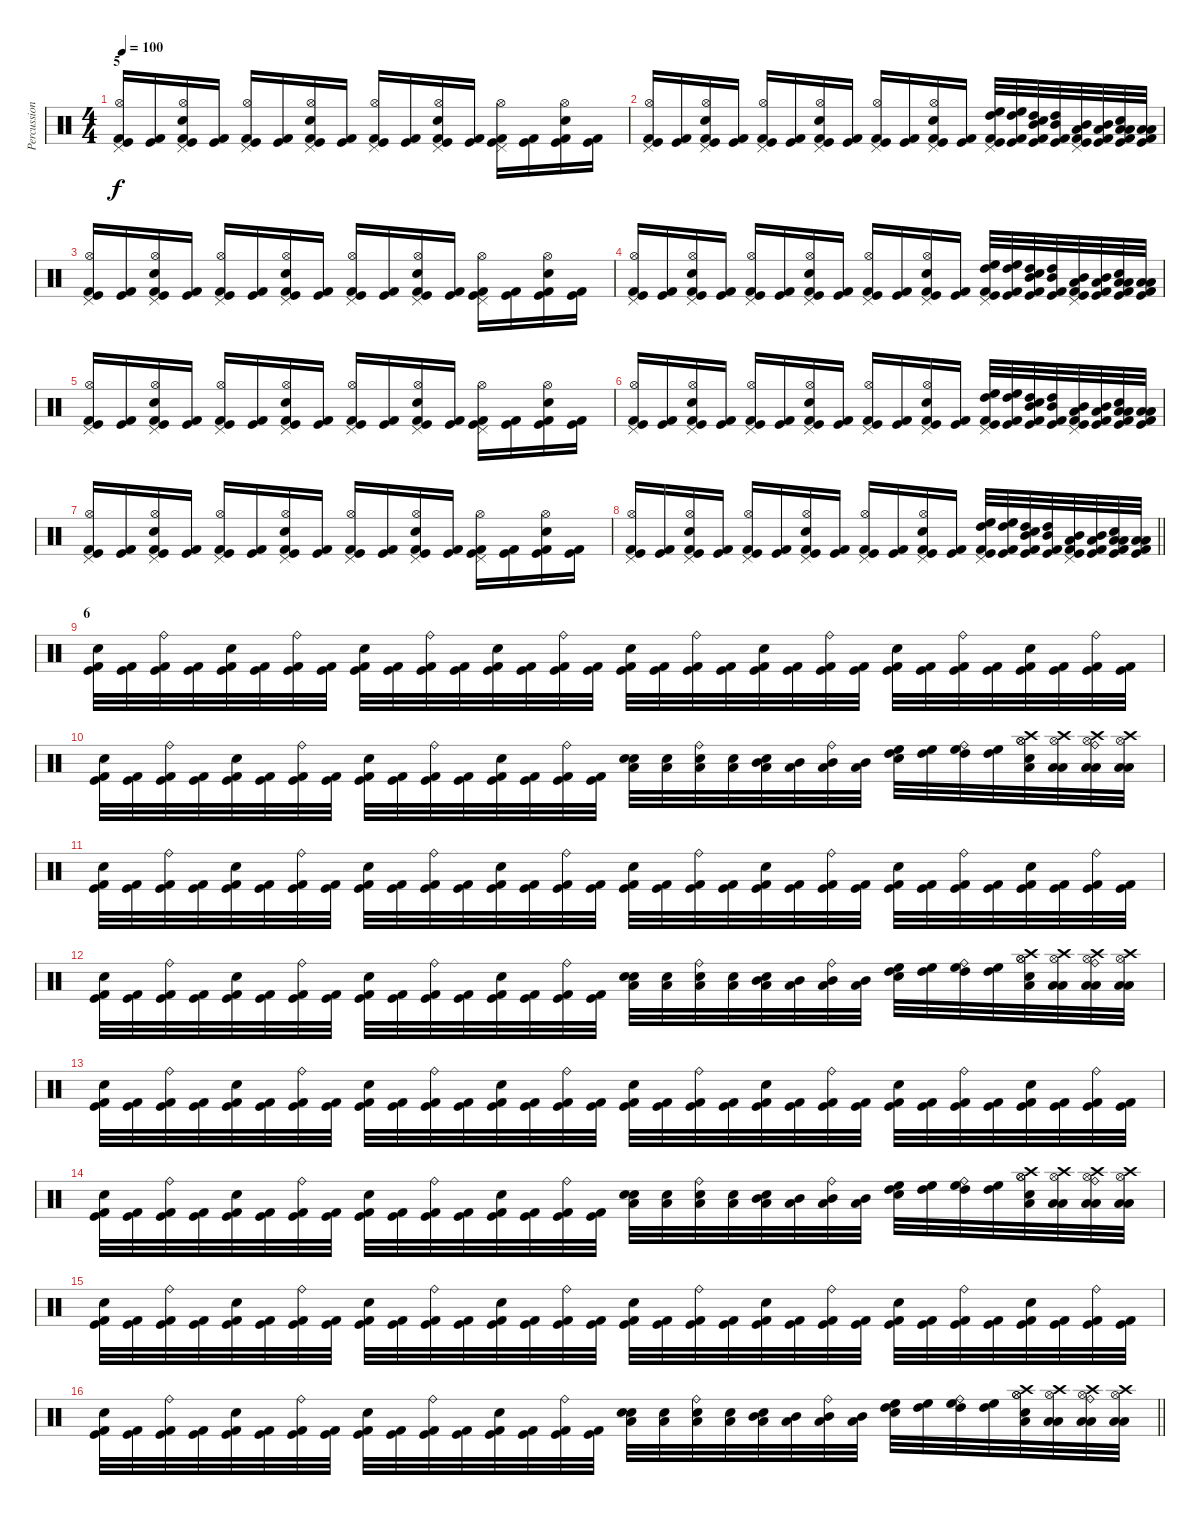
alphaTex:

\track ("Percussion" "Percussion") {instrument percussion}
\staff {score}
\articulation defaults
\ts (4 4)
\section ("" "5")
\tempo 100
\clef neutral
\ks c
("Pedal Hi-Hat (hit)" "Hi-Hat (open)" "Kick (hit) 2" "Kick (hit)").16{dy f} ("Kick (hit) 2" "Kick (hit)").16 ("Pedal Hi-Hat (hit)" "Electric Snare (hit)" "Hi-Hat (open)" "Kick (hit) 2" "Kick (hit)").16 ("Kick (hit) 2" "Kick (hit)").16 ("Pedal Hi-Hat (hit)" "Hi-Hat (open)" "Kick (hit) 2" "Kick (hit)").16 ("Kick (hit) 2" "Kick (hit)").16 ("Pedal Hi-Hat (hit)" "Electric Snare (hit)" "Hi-Hat (open)" "Kick (hit) 2" "Kick (hit)").16 ("Kick (hit) 2" "Kick (hit)").16 ("Pedal Hi-Hat (hit)" "Hi-Hat (open)" "Kick (hit) 2" "Kick (hit)").16 ("Kick (hit) 2" "Kick (hit)").16 ("Pedal Hi-Hat (hit)" "Electric Snare (hit)" "Hi-Hat (open)" "Kick (hit) 2" "Kick (hit)").16 ("Kick (hit) 2" "Kick (hit)").16 ("Pedal Hi-Hat (hit)" "Hi-Hat (open)" "Kick (hit) 2" "Kick (hit)").16 ("Kick (hit) 2" "Kick (hit)").16 ("Hi-Hat (open)" "Electric Snare (hit)" "Kick (hit) 2" "Kick (hit)").16 ("Kick (hit) 2" "Kick (hit)").16 |
("Pedal Hi-Hat (hit)" "Hi-Hat (open)" "Kick (hit) 2" "Kick (hit)").16 ("Kick (hit) 2" "Kick (hit)").16 ("Pedal Hi-Hat (hit)" "Electric Snare (hit)" "Hi-Hat (open)" "Kick (hit) 2" "Kick (hit)").16 ("Kick (hit) 2" "Kick (hit)").16 ("Pedal Hi-Hat (hit)" "Hi-Hat (open)" "Kick (hit) 2" "Kick (hit)").16 ("Kick (hit) 2" "Kick (hit)").16 ("Pedal Hi-Hat (hit)" "Electric Snare (hit)" "Hi-Hat (open)" "Kick (hit) 2" "Kick (hit)").16 ("Kick (hit) 2" "Kick (hit)").16 ("Pedal Hi-Hat (hit)" "Hi-Hat (open)" "Kick (hit) 2" "Kick (hit)").16 ("Kick (hit) 2" "Kick (hit)").16 ("Pedal Hi-Hat (hit)" "Electric Snare (hit)" "Hi-Hat (open)" "Kick (hit) 2" "Kick (hit)").16 ("Kick (hit) 2" "Kick (hit)").16 ("Pedal Hi-Hat (hit)" "High Floor Tom (hit)" "High Tom (hit)" "Kick (hit) 2" "Kick (hit)").32 ("High Floor Tom (hit)" "High Tom (hit)" "Kick (hit) 2" "Kick (hit)").32 ("High Tom (hit)" "Mid Tom (hit)" "Electric Snare (hit)" "Kick (hit) 2" "Kick (hit)").32 ("High Tom (hit)" "Mid Tom (hit)" "Kick (hit) 2" "Kick (hit)").32 ("Pedal Hi-Hat (hit)" "Mid Tom (hit)" "Low Tom (hit)" "Kick (hit) 2" "Kick (hit)").32 ("Mid Tom (hit)" "Low Tom (hit)" "Kick (hit) 2" "Kick (hit)").32 ("Low Tom (hit)" "Low Floor Tom (hit)" "Electric Snare (hit)" "Kick (hit) 2" "Kick (hit)").32 ("Low Tom (hit)" "Low Floor Tom (hit)" "Kick (hit) 2" "Kick (hit)").32 |
("Pedal Hi-Hat (hit)" "Hi-Hat (open)" "Kick (hit) 2" "Kick (hit)").16 ("Kick (hit) 2" "Kick (hit)").16 ("Pedal Hi-Hat (hit)" "Electric Snare (hit)" "Hi-Hat (open)" "Kick (hit) 2" "Kick (hit)").16 ("Kick (hit) 2" "Kick (hit)").16 ("Pedal Hi-Hat (hit)" "Hi-Hat (open)" "Kick (hit) 2" "Kick (hit)").16 ("Kick (hit) 2" "Kick (hit)").16 ("Pedal Hi-Hat (hit)" "Electric Snare (hit)" "Hi-Hat (open)" "Kick (hit) 2" "Kick (hit)").16 ("Kick (hit) 2" "Kick (hit)").16 ("Pedal Hi-Hat (hit)" "Hi-Hat (open)" "Kick (hit) 2" "Kick (hit)").16 ("Kick (hit) 2" "Kick (hit)").16 ("Pedal Hi-Hat (hit)" "Electric Snare (hit)" "Hi-Hat (open)" "Kick (hit) 2" "Kick (hit)").16 ("Kick (hit) 2" "Kick (hit)").16 ("Pedal Hi-Hat (hit)" "Hi-Hat (open)" "Kick (hit) 2" "Kick (hit)").16 ("Kick (hit) 2" "Kick (hit)").16 ("Hi-Hat (open)" "Electric Snare (hit)" "Kick (hit) 2" "Kick (hit)").16 ("Kick (hit) 2" "Kick (hit)").16 |
("Pedal Hi-Hat (hit)" "Hi-Hat (open)" "Kick (hit) 2" "Kick (hit)").16 ("Kick (hit) 2" "Kick (hit)").16 ("Pedal Hi-Hat (hit)" "Electric Snare (hit)" "Hi-Hat (open)" "Kick (hit) 2" "Kick (hit)").16 ("Kick (hit) 2" "Kick (hit)").16 ("Pedal Hi-Hat (hit)" "Hi-Hat (open)" "Kick (hit) 2" "Kick (hit)").16 ("Kick (hit) 2" "Kick (hit)").16 ("Pedal Hi-Hat (hit)" "Electric Snare (hit)" "Hi-Hat (open)" "Kick (hit) 2" "Kick (hit)").16 ("Kick (hit) 2" "Kick (hit)").16 ("Pedal Hi-Hat (hit)" "Hi-Hat (open)" "Kick (hit) 2" "Kick (hit)").16 ("Kick (hit) 2" "Kick (hit)").16 ("Pedal Hi-Hat (hit)" "Electric Snare (hit)" "Hi-Hat (open)" "Kick (hit) 2" "Kick (hit)").16 ("Kick (hit) 2" "Kick (hit)").16 ("Pedal Hi-Hat (hit)" "High Floor Tom (hit)" "High Tom (hit)" "Kick (hit) 2" "Kick (hit)").32 ("High Floor Tom (hit)" "High Tom (hit)" "Kick (hit) 2" "Kick (hit)").32 ("High Tom (hit)" "Mid Tom (hit)" "Electric Snare (hit)" "Kick (hit) 2" "Kick (hit)").32 ("High Tom (hit)" "Mid Tom (hit)" "Kick (hit) 2" "Kick (hit)").32 ("Pedal Hi-Hat (hit)" "Mid Tom (hit)" "Low Tom (hit)" "Kick (hit) 2" "Kick (hit)").32 ("Mid Tom (hit)" "Low Tom (hit)" "Kick (hit) 2" "Kick (hit)").32 ("Low Tom (hit)" "Low Floor Tom (hit)" "Electric Snare (hit)" "Kick (hit) 2" "Kick (hit)").32 ("Low Tom (hit)" "Low Floor Tom (hit)" "Kick (hit) 2" "Kick (hit)").32 |
("Pedal Hi-Hat (hit)" "Hi-Hat (open)" "Kick (hit) 2" "Kick (hit)").16 ("Kick (hit) 2" "Kick (hit)").16 ("Pedal Hi-Hat (hit)" "Electric Snare (hit)" "Hi-Hat (open)" "Kick (hit) 2" "Kick (hit)").16 ("Kick (hit) 2" "Kick (hit)").16 ("Pedal Hi-Hat (hit)" "Hi-Hat (open)" "Kick (hit) 2" "Kick (hit)").16 ("Kick (hit) 2" "Kick (hit)").16 ("Pedal Hi-Hat (hit)" "Electric Snare (hit)" "Hi-Hat (open)" "Kick (hit) 2" "Kick (hit)").16 ("Kick (hit) 2" "Kick (hit)").16 ("Pedal Hi-Hat (hit)" "Hi-Hat (open)" "Kick (hit) 2" "Kick (hit)").16 ("Kick (hit) 2" "Kick (hit)").16 ("Pedal Hi-Hat (hit)" "Electric Snare (hit)" "Hi-Hat (open)" "Kick (hit) 2" "Kick (hit)").16 ("Kick (hit) 2" "Kick (hit)").16 ("Pedal Hi-Hat (hit)" "Hi-Hat (open)" "Kick (hit) 2" "Kick (hit)").16 ("Kick (hit) 2" "Kick (hit)").16 ("Hi-Hat (open)" "Electric Snare (hit)" "Kick (hit) 2" "Kick (hit)").16 ("Kick (hit) 2" "Kick (hit)").16 |
("Pedal Hi-Hat (hit)" "Hi-Hat (open)" "Kick (hit) 2" "Kick (hit)").16 ("Kick (hit) 2" "Kick (hit)").16 ("Pedal Hi-Hat (hit)" "Electric Snare (hit)" "Hi-Hat (open)" "Kick (hit) 2" "Kick (hit)").16 ("Kick (hit) 2" "Kick (hit)").16 ("Pedal Hi-Hat (hit)" "Hi-Hat (open)" "Kick (hit) 2" "Kick (hit)").16 ("Kick (hit) 2" "Kick (hit)").16 ("Pedal Hi-Hat (hit)" "Electric Snare (hit)" "Hi-Hat (open)" "Kick (hit) 2" "Kick (hit)").16 ("Kick (hit) 2" "Kick (hit)").16 ("Pedal Hi-Hat (hit)" "Hi-Hat (open)" "Kick (hit) 2" "Kick (hit)").16 ("Kick (hit) 2" "Kick (hit)").16 ("Pedal Hi-Hat (hit)" "Electric Snare (hit)" "Hi-Hat (open)" "Kick (hit) 2" "Kick (hit)").16 ("Kick (hit) 2" "Kick (hit)").16 ("Pedal Hi-Hat (hit)" "High Floor Tom (hit)" "High Tom (hit)" "Kick (hit) 2" "Kick (hit)").32 ("High Floor Tom (hit)" "High Tom (hit)" "Kick (hit) 2" "Kick (hit)").32 ("High Tom (hit)" "Mid Tom (hit)" "Electric Snare (hit)" "Kick (hit) 2" "Kick (hit)").32 ("High Tom (hit)" "Mid Tom (hit)" "Kick (hit) 2" "Kick (hit)").32 ("Pedal Hi-Hat (hit)" "Mid Tom (hit)" "Low Tom (hit)" "Kick (hit) 2" "Kick (hit)").32 ("Mid Tom (hit)" "Low Tom (hit)" "Kick (hit) 2" "Kick (hit)").32 ("Low Tom (hit)" "Low Floor Tom (hit)" "Electric Snare (hit)" "Kick (hit) 2" "Kick (hit)").32 ("Low Tom (hit)" "Low Floor Tom (hit)" "Kick (hit) 2" "Kick (hit)").32 |
("Pedal Hi-Hat (hit)" "Hi-Hat (open)" "Kick (hit) 2" "Kick (hit)").16 ("Kick (hit) 2" "Kick (hit)").16 ("Pedal Hi-Hat (hit)" "Electric Snare (hit)" "Hi-Hat (open)" "Kick (hit) 2" "Kick (hit)").16 ("Kick (hit) 2" "Kick (hit)").16 ("Pedal Hi-Hat (hit)" "Hi-Hat (open)" "Kick (hit) 2" "Kick (hit)").16 ("Kick (hit) 2" "Kick (hit)").16 ("Pedal Hi-Hat (hit)" "Electric Snare (hit)" "Hi-Hat (open)" "Kick (hit) 2" "Kick (hit)").16 ("Kick (hit) 2" "Kick (hit)").16 ("Pedal Hi-Hat (hit)" "Hi-Hat (open)" "Kick (hit) 2" "Kick (hit)").16 ("Kick (hit) 2" "Kick (hit)").16 ("Pedal Hi-Hat (hit)" "Electric Snare (hit)" "Hi-Hat (open)" "Kick (hit) 2" "Kick (hit)").16 ("Kick (hit) 2" "Kick (hit)").16 ("Pedal Hi-Hat (hit)" "Hi-Hat (open)" "Kick (hit) 2" "Kick (hit)").16 ("Kick (hit) 2" "Kick (hit)").16 ("Hi-Hat (open)" "Electric Snare (hit)" "Kick (hit) 2" "Kick (hit)").16 ("Kick (hit) 2" "Kick (hit)").16 |
\barLineRight lightlight
("Pedal Hi-Hat (hit)" "Hi-Hat (open)" "Kick (hit) 2" "Kick (hit)").16 ("Kick (hit) 2" "Kick (hit)").16 ("Pedal Hi-Hat (hit)" "Electric Snare (hit)" "Hi-Hat (open)" "Kick (hit) 2" "Kick (hit)").16 ("Kick (hit) 2" "Kick (hit)").16 ("Pedal Hi-Hat (hit)" "Hi-Hat (open)" "Kick (hit) 2" "Kick (hit)").16 ("Kick (hit) 2" "Kick (hit)").16 ("Pedal Hi-Hat (hit)" "Electric Snare (hit)" "Hi-Hat (open)" "Kick (hit) 2" "Kick (hit)").16 ("Kick (hit) 2" "Kick (hit)").16 ("Pedal Hi-Hat (hit)" "Hi-Hat (open)" "Kick (hit) 2" "Kick (hit)").16 ("Kick (hit) 2" "Kick (hit)").16 ("Pedal Hi-Hat (hit)" "Electric Snare (hit)" "Hi-Hat (open)" "Kick (hit) 2" "Kick (hit)").16 ("Kick (hit) 2" "Kick (hit)").16 ("Pedal Hi-Hat (hit)" "High Floor Tom (hit)" "High Tom (hit)" "Kick (hit) 2" "Kick (hit)").32 ("High Floor Tom (hit)" "High Tom (hit)" "Kick (hit) 2" "Kick (hit)").32 ("High Tom (hit)" "Mid Tom (hit)" "Electric Snare (hit)" "Kick (hit) 2" "Kick (hit)").32 ("High Tom (hit)" "Mid Tom (hit)" "Kick (hit) 2" "Kick (hit)").32 ("Pedal Hi-Hat (hit)" "Mid Tom (hit)" "Low Tom (hit)" "Kick (hit) 2" "Kick (hit)").32 ("Mid Tom (hit)" "Low Tom (hit)" "Kick (hit) 2" "Kick (hit)").32 ("Low Tom (hit)" "Low Floor Tom (hit)" "Electric Snare (hit)" "Kick (hit) 2" "Kick (hit)").32 ("Low Tom (hit)" "Low Floor Tom (hit)" "Kick (hit) 2" "Kick (hit)").32 |
\section ("" "6")
("Snare (hit) 2" "Kick (hit) 2" "Kick (hit)").32 ("Kick (hit) 2" "Kick (hit)").32 ("Ride (bell)" "Kick (hit) 2" "Kick (hit)").32 ("Kick (hit) 2" "Kick (hit)").32 ("Electric Snare (hit)" "Kick (hit) 2" "Kick (hit)").32 ("Kick (hit) 2" "Kick (hit)").32 ("Ride (bell)" "Kick (hit) 2" "Kick (hit)").32 ("Kick (hit) 2" "Kick (hit)").32 ("Electric Snare (hit)" "Kick (hit) 2" "Kick (hit)").32 ("Kick (hit) 2" "Kick (hit)").32 ("Ride (bell)" "Kick (hit) 2" "Kick (hit)").32 ("Kick (hit) 2" "Kick (hit)").32 ("Electric Snare (hit)" "Kick (hit) 2" "Kick (hit)").32 ("Kick (hit) 2" "Kick (hit)").32 ("Ride (bell)" "Kick (hit) 2" "Kick (hit)").32 ("Kick (hit) 2" "Kick (hit)").32 ("Snare (hit) 2" "Kick (hit) 2" "Kick (hit)").32 ("Kick (hit) 2" "Kick (hit)").32 ("Ride (bell)" "Kick (hit) 2" "Kick (hit)").32 ("Kick (hit) 2" "Kick (hit)").32 ("Electric Snare (hit)" "Kick (hit) 2" "Kick (hit)").32 ("Kick (hit) 2" "Kick (hit)").32 ("Ride (bell)" "Kick (hit) 2" "Kick (hit)").32 ("Kick (hit) 2" "Kick (hit)").32 ("Electric Snare (hit)" "Kick (hit) 2" "Kick (hit)").32 ("Kick (hit) 2" "Kick (hit)").32 ("Ride (bell)" "Kick (hit) 2" "Kick (hit)").32 ("Kick (hit) 2" "Kick (hit)").32 ("Electric Snare (hit)" "Kick (hit) 2" "Kick (hit)").32 ("Kick (hit) 2" "Kick (hit)").32 ("Ride (bell)" "Kick (hit) 2" "Kick (hit)").32 ("Kick (hit) 2" "Kick (hit)").32 |
("Snare (hit) 2" "Kick (hit) 2" "Kick (hit)").32 ("Kick (hit) 2" "Kick (hit)").32 ("Ride (bell)" "Kick (hit) 2" "Kick (hit)").32 ("Kick (hit) 2" "Kick (hit)").32 ("Electric Snare (hit)" "Kick (hit) 2" "Kick (hit)").32 ("Kick (hit) 2" "Kick (hit)").32 ("Ride (bell)" "Kick (hit) 2" "Kick (hit)").32 ("Kick (hit) 2" "Kick (hit)").32 ("Electric Snare (hit)" "Kick (hit) 2" "Kick (hit)").32 ("Kick (hit) 2" "Kick (hit)").32 ("Ride (bell)" "Kick (hit) 2" "Kick (hit)").32 ("Kick (hit) 2" "Kick (hit)").32 ("Electric Snare (hit)" "Kick (hit) 2" "Kick (hit)").32 ("Kick (hit) 2" "Kick (hit)").32 ("Ride (bell)" "Kick (hit) 2" "Kick (hit)").32 ("Kick (hit) 2" "Kick (hit)").32 ("Snare (hit) 2" "Low Floor Tom (hit)" "Electric Snare (hit)").32 ("Low Floor Tom (hit)" "Electric Snare (hit)").32 ("Ride (bell)" "Low Floor Tom (hit)" "Electric Snare (hit)").32 ("Low Floor Tom (hit)" "Electric Snare (hit)").32 ("Electric Snare (hit)" "Mid Tom (hit)" "Low Tom (hit)").32 ("Mid Tom (hit)" "Low Tom (hit)").32 ("Ride (bell)" "Mid Tom (hit)" "Low Tom (hit)").32 ("Mid Tom (hit)" "Low Tom (hit)").32 ("Electric Snare (hit)" "High Tom (hit)" "High Floor Tom (hit)").32 ("High Tom (hit)" "High Floor Tom (hit)").32 ("Ride (bell)" "High Tom (hit)" "High Floor Tom (hit)").32 ("High Tom (hit)" "High Floor Tom (hit)").32 ("Electric Snare (hit)" "Crash high (hit)" "Hi-Hat (open)" "Hi-Hat (open)" "Low Tom (hit)").32 ("Crash high (hit)" "Hi-Hat (open)" "Low Floor Tom (hit)" "Low Tom (hit)").32 ("Ride (bell)" "Crash high (hit)" "Hi-Hat (open)" "Low Floor Tom (hit)" "Low Tom (hit)").32 ("Crash high (hit)" "Hi-Hat (open)" "Low Floor Tom (hit)" "Low Tom (hit)").32 |
("Snare (hit) 2" "Kick (hit) 2" "Kick (hit)").32 ("Kick (hit) 2" "Kick (hit)").32 ("Ride (bell)" "Kick (hit) 2" "Kick (hit)").32 ("Kick (hit) 2" "Kick (hit)").32 ("Electric Snare (hit)" "Kick (hit) 2" "Kick (hit)").32 ("Kick (hit) 2" "Kick (hit)").32 ("Ride (bell)" "Kick (hit) 2" "Kick (hit)").32 ("Kick (hit) 2" "Kick (hit)").32 ("Electric Snare (hit)" "Kick (hit) 2" "Kick (hit)").32 ("Kick (hit) 2" "Kick (hit)").32 ("Ride (bell)" "Kick (hit) 2" "Kick (hit)").32 ("Kick (hit) 2" "Kick (hit)").32 ("Electric Snare (hit)" "Kick (hit) 2" "Kick (hit)").32 ("Kick (hit) 2" "Kick (hit)").32 ("Ride (bell)" "Kick (hit) 2" "Kick (hit)").32 ("Kick (hit) 2" "Kick (hit)").32 ("Snare (hit) 2" "Kick (hit) 2" "Kick (hit)").32 ("Kick (hit) 2" "Kick (hit)").32 ("Ride (bell)" "Kick (hit) 2" "Kick (hit)").32 ("Kick (hit) 2" "Kick (hit)").32 ("Electric Snare (hit)" "Kick (hit) 2" "Kick (hit)").32 ("Kick (hit) 2" "Kick (hit)").32 ("Ride (bell)" "Kick (hit) 2" "Kick (hit)").32 ("Kick (hit) 2" "Kick (hit)").32 ("Electric Snare (hit)" "Kick (hit) 2" "Kick (hit)").32 ("Kick (hit) 2" "Kick (hit)").32 ("Ride (bell)" "Kick (hit) 2" "Kick (hit)").32 ("Kick (hit) 2" "Kick (hit)").32 ("Electric Snare (hit)" "Kick (hit) 2" "Kick (hit)").32 ("Kick (hit) 2" "Kick (hit)").32 ("Ride (bell)" "Kick (hit) 2" "Kick (hit)").32 ("Kick (hit) 2" "Kick (hit)").32 |
("Snare (hit) 2" "Kick (hit) 2" "Kick (hit)").32 ("Kick (hit) 2" "Kick (hit)").32 ("Ride (bell)" "Kick (hit) 2" "Kick (hit)").32 ("Kick (hit) 2" "Kick (hit)").32 ("Electric Snare (hit)" "Kick (hit) 2" "Kick (hit)").32 ("Kick (hit) 2" "Kick (hit)").32 ("Ride (bell)" "Kick (hit) 2" "Kick (hit)").32 ("Kick (hit) 2" "Kick (hit)").32 ("Electric Snare (hit)" "Kick (hit) 2" "Kick (hit)").32 ("Kick (hit) 2" "Kick (hit)").32 ("Ride (bell)" "Kick (hit) 2" "Kick (hit)").32 ("Kick (hit) 2" "Kick (hit)").32 ("Electric Snare (hit)" "Kick (hit) 2" "Kick (hit)").32 ("Kick (hit) 2" "Kick (hit)").32 ("Ride (bell)" "Kick (hit) 2" "Kick (hit)").32 ("Kick (hit) 2" "Kick (hit)").32 ("Snare (hit) 2" "Low Floor Tom (hit)" "Electric Snare (hit)").32 ("Low Floor Tom (hit)" "Electric Snare (hit)").32 ("Ride (bell)" "Low Floor Tom (hit)" "Electric Snare (hit)").32 ("Low Floor Tom (hit)" "Electric Snare (hit)").32 ("Electric Snare (hit)" "Mid Tom (hit)" "Low Tom (hit)").32 ("Mid Tom (hit)" "Low Tom (hit)").32 ("Ride (bell)" "Mid Tom (hit)" "Low Tom (hit)").32 ("Mid Tom (hit)" "Low Tom (hit)").32 ("Electric Snare (hit)" "High Tom (hit)" "High Floor Tom (hit)").32 ("High Tom (hit)" "High Floor Tom (hit)").32 ("Ride (bell)" "High Tom (hit)" "High Floor Tom (hit)").32 ("High Tom (hit)" "High Floor Tom (hit)").32 ("Electric Snare (hit)" "Crash high (hit)" "Hi-Hat (open)" "Hi-Hat (open)" "Low Tom (hit)").32 ("Crash high (hit)" "Hi-Hat (open)" "Low Floor Tom (hit)" "Low Tom (hit)").32 ("Ride (bell)" "Crash high (hit)" "Hi-Hat (open)" "Low Floor Tom (hit)" "Low Tom (hit)").32 ("Crash high (hit)" "Hi-Hat (open)" "Low Floor Tom (hit)" "Low Tom (hit)").32 |
("Snare (hit) 2" "Kick (hit) 2" "Kick (hit)").32 ("Kick (hit) 2" "Kick (hit)").32 ("Ride (bell)" "Kick (hit) 2" "Kick (hit)").32 ("Kick (hit) 2" "Kick (hit)").32 ("Electric Snare (hit)" "Kick (hit) 2" "Kick (hit)").32 ("Kick (hit) 2" "Kick (hit)").32 ("Ride (bell)" "Kick (hit) 2" "Kick (hit)").32 ("Kick (hit) 2" "Kick (hit)").32 ("Electric Snare (hit)" "Kick (hit) 2" "Kick (hit)").32 ("Kick (hit) 2" "Kick (hit)").32 ("Ride (bell)" "Kick (hit) 2" "Kick (hit)").32 ("Kick (hit) 2" "Kick (hit)").32 ("Electric Snare (hit)" "Kick (hit) 2" "Kick (hit)").32 ("Kick (hit) 2" "Kick (hit)").32 ("Ride (bell)" "Kick (hit) 2" "Kick (hit)").32 ("Kick (hit) 2" "Kick (hit)").32 ("Snare (hit) 2" "Kick (hit) 2" "Kick (hit)").32 ("Kick (hit) 2" "Kick (hit)").32 ("Ride (bell)" "Kick (hit) 2" "Kick (hit)").32 ("Kick (hit) 2" "Kick (hit)").32 ("Electric Snare (hit)" "Kick (hit) 2" "Kick (hit)").32 ("Kick (hit) 2" "Kick (hit)").32 ("Ride (bell)" "Kick (hit) 2" "Kick (hit)").32 ("Kick (hit) 2" "Kick (hit)").32 ("Electric Snare (hit)" "Kick (hit) 2" "Kick (hit)").32 ("Kick (hit) 2" "Kick (hit)").32 ("Ride (bell)" "Kick (hit) 2" "Kick (hit)").32 ("Kick (hit) 2" "Kick (hit)").32 ("Electric Snare (hit)" "Kick (hit) 2" "Kick (hit)").32 ("Kick (hit) 2" "Kick (hit)").32 ("Ride (bell)" "Kick (hit) 2" "Kick (hit)").32 ("Kick (hit) 2" "Kick (hit)").32 |
("Snare (hit) 2" "Kick (hit) 2" "Kick (hit)").32 ("Kick (hit) 2" "Kick (hit)").32 ("Ride (bell)" "Kick (hit) 2" "Kick (hit)").32 ("Kick (hit) 2" "Kick (hit)").32 ("Electric Snare (hit)" "Kick (hit) 2" "Kick (hit)").32 ("Kick (hit) 2" "Kick (hit)").32 ("Ride (bell)" "Kick (hit) 2" "Kick (hit)").32 ("Kick (hit) 2" "Kick (hit)").32 ("Electric Snare (hit)" "Kick (hit) 2" "Kick (hit)").32 ("Kick (hit) 2" "Kick (hit)").32 ("Ride (bell)" "Kick (hit) 2" "Kick (hit)").32 ("Kick (hit) 2" "Kick (hit)").32 ("Electric Snare (hit)" "Kick (hit) 2" "Kick (hit)").32 ("Kick (hit) 2" "Kick (hit)").32 ("Ride (bell)" "Kick (hit) 2" "Kick (hit)").32 ("Kick (hit) 2" "Kick (hit)").32 ("Snare (hit) 2" "Low Floor Tom (hit)" "Electric Snare (hit)").32 ("Low Floor Tom (hit)" "Electric Snare (hit)").32 ("Ride (bell)" "Low Floor Tom (hit)" "Electric Snare (hit)").32 ("Low Floor Tom (hit)" "Electric Snare (hit)").32 ("Electric Snare (hit)" "Mid Tom (hit)" "Low Tom (hit)").32 ("Mid Tom (hit)" "Low Tom (hit)").32 ("Ride (bell)" "Mid Tom (hit)" "Low Tom (hit)").32 ("Mid Tom (hit)" "Low Tom (hit)").32 ("Electric Snare (hit)" "High Tom (hit)" "High Floor Tom (hit)").32 ("High Tom (hit)" "High Floor Tom (hit)").32 ("Ride (bell)" "High Tom (hit)" "High Floor Tom (hit)").32 ("High Tom (hit)" "High Floor Tom (hit)").32 ("Electric Snare (hit)" "Crash high (hit)" "Hi-Hat (open)" "Hi-Hat (open)" "Low Tom (hit)").32 ("Crash high (hit)" "Hi-Hat (open)" "Low Floor Tom (hit)" "Low Tom (hit)").32 ("Ride (bell)" "Crash high (hit)" "Hi-Hat (open)" "Low Floor Tom (hit)" "Low Tom (hit)").32 ("Crash high (hit)" "Hi-Hat (open)" "Low Floor Tom (hit)" "Low Tom (hit)").32 |
("Snare (hit) 2" "Kick (hit) 2" "Kick (hit)").32 ("Kick (hit) 2" "Kick (hit)").32 ("Ride (bell)" "Kick (hit) 2" "Kick (hit)").32 ("Kick (hit) 2" "Kick (hit)").32 ("Electric Snare (hit)" "Kick (hit) 2" "Kick (hit)").32 ("Kick (hit) 2" "Kick (hit)").32 ("Ride (bell)" "Kick (hit) 2" "Kick (hit)").32 ("Kick (hit) 2" "Kick (hit)").32 ("Electric Snare (hit)" "Kick (hit) 2" "Kick (hit)").32 ("Kick (hit) 2" "Kick (hit)").32 ("Ride (bell)" "Kick (hit) 2" "Kick (hit)").32 ("Kick (hit) 2" "Kick (hit)").32 ("Electric Snare (hit)" "Kick (hit) 2" "Kick (hit)").32 ("Kick (hit) 2" "Kick (hit)").32 ("Ride (bell)" "Kick (hit) 2" "Kick (hit)").32 ("Kick (hit) 2" "Kick (hit)").32 ("Snare (hit) 2" "Kick (hit) 2" "Kick (hit)").32 ("Kick (hit) 2" "Kick (hit)").32 ("Ride (bell)" "Kick (hit) 2" "Kick (hit)").32 ("Kick (hit) 2" "Kick (hit)").32 ("Electric Snare (hit)" "Kick (hit) 2" "Kick (hit)").32 ("Kick (hit) 2" "Kick (hit)").32 ("Ride (bell)" "Kick (hit) 2" "Kick (hit)").32 ("Kick (hit) 2" "Kick (hit)").32 ("Electric Snare (hit)" "Kick (hit) 2" "Kick (hit)").32 ("Kick (hit) 2" "Kick (hit)").32 ("Ride (bell)" "Kick (hit) 2" "Kick (hit)").32 ("Kick (hit) 2" "Kick (hit)").32 ("Electric Snare (hit)" "Kick (hit) 2" "Kick (hit)").32 ("Kick (hit) 2" "Kick (hit)").32 ("Ride (bell)" "Kick (hit) 2" "Kick (hit)").32 ("Kick (hit) 2" "Kick (hit)").32 |
\barLineRight lightlight
("Snare (hit) 2" "Kick (hit) 2" "Kick (hit)").32 ("Kick (hit) 2" "Kick (hit)").32 ("Ride (bell)" "Kick (hit) 2" "Kick (hit)").32 ("Kick (hit) 2" "Kick (hit)").32 ("Electric Snare (hit)" "Kick (hit) 2" "Kick (hit)").32 ("Kick (hit) 2" "Kick (hit)").32 ("Ride (bell)" "Kick (hit) 2" "Kick (hit)").32 ("Kick (hit) 2" "Kick (hit)").32 ("Electric Snare (hit)" "Kick (hit) 2" "Kick (hit)").32 ("Kick (hit) 2" "Kick (hit)").32 ("Ride (bell)" "Kick (hit) 2" "Kick (hit)").32 ("Kick (hit) 2" "Kick (hit)").32 ("Electric Snare (hit)" "Kick (hit) 2" "Kick (hit)").32 ("Kick (hit) 2" "Kick (hit)").32 ("Ride (bell)" "Kick (hit) 2" "Kick (hit)").32 ("Kick (hit) 2" "Kick (hit)").32 ("Snare (hit) 2" "Low Floor Tom (hit)" "Electric Snare (hit)").32 ("Low Floor Tom (hit)" "Electric Snare (hit)").32 ("Ride (bell)" "Low Floor Tom (hit)" "Electric Snare (hit)").32 ("Low Floor Tom (hit)" "Electric Snare (hit)").32 ("Electric Snare (hit)" "Mid Tom (hit)" "Low Tom (hit)").32 ("Mid Tom (hit)" "Low Tom (hit)").32 ("Ride (bell)" "Mid Tom (hit)" "Low Tom (hit)").32 ("Mid Tom (hit)" "Low Tom (hit)").32 ("Electric Snare (hit)" "High Tom (hit)" "High Floor Tom (hit)").32 ("High Tom (hit)" "High Floor Tom (hit)").32 ("Ride (bell)" "High Tom (hit)" "High Floor Tom (hit)").32 ("High Tom (hit)" "High Floor Tom (hit)").32 ("Electric Snare (hit)" "Crash high (hit)" "Hi-Hat (open)" "Hi-Hat (open)" "Low Tom (hit)").32 ("Crash high (hit)" "Hi-Hat (open)" "Low Floor Tom (hit)" "Low Tom (hit)").32 ("Ride (bell)" "Crash high (hit)" "Hi-Hat (open)" "Low Floor Tom (hit)" "Low Tom (hit)").32 ("Crash high (hit)" "Hi-Hat (open)" "Low Floor Tom (hit)" "Low Tom (hit)").32
